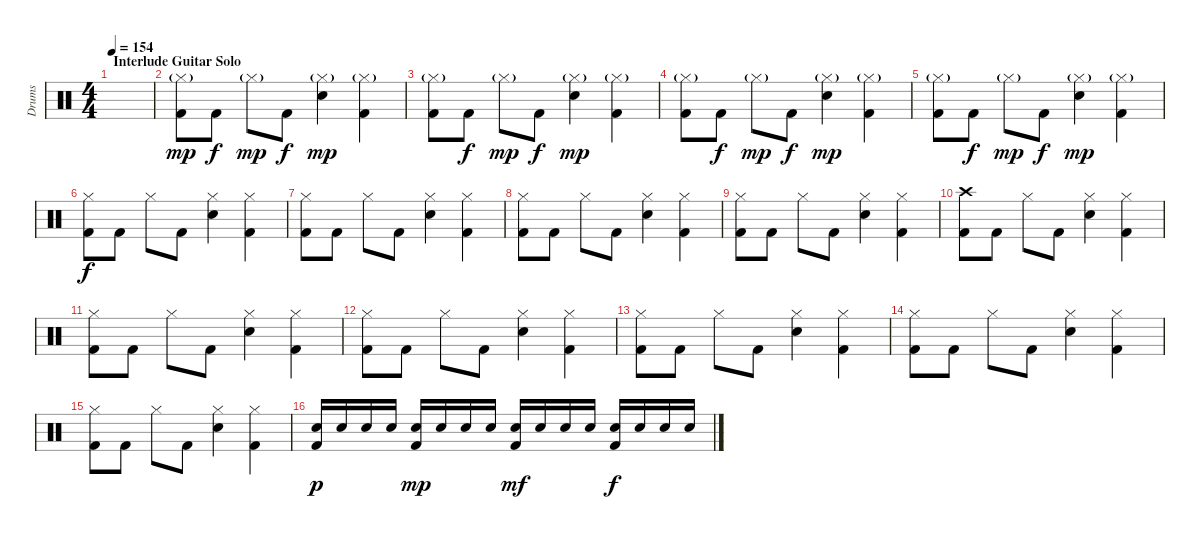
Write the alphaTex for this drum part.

\track ("Drums" "Drums") {instrument percussion}
\staff {score}
\articulation defaults
\ts (4 4)
\section ("" "Interlude Guitar Solo")
\tempo 154
\clef neutral
\ks c
|
("Hi-Hat (closed)"{g} "Kick (hit) 2").8{dy mp volume 9 balance 0} "Kick (hit) 2".8{dy f} "Hi-Hat (closed)"{g}.8{dy mp} "Kick (hit) 2".8{dy f} ("Hi-Hat (closed)"{g} "Electric Snare (hit)").4{dy mp} ("Hi-Hat (closed)"{g} "Kick (hit) 2").4 |
("Hi-Hat (closed)"{g} "Kick (hit) 2").8{volume 10 balance 0} "Kick (hit) 2".8{dy f} "Hi-Hat (closed)"{g}.8{dy mp} "Kick (hit) 2".8{dy f} ("Hi-Hat (closed)"{g} "Electric Snare (hit)").4{dy mp} ("Hi-Hat (closed)"{g} "Kick (hit) 2").4 |
("Hi-Hat (closed)"{g} "Kick (hit) 2").8{volume 11 balance 0} "Kick (hit) 2".8{dy f} "Hi-Hat (closed)"{g}.8{dy mp} "Kick (hit) 2".8{dy f} ("Hi-Hat (closed)"{g} "Electric Snare (hit)").4{dy mp} ("Hi-Hat (closed)"{g} "Kick (hit) 2").4 |
("Hi-Hat (closed)"{g} "Kick (hit) 2").8{volume 12 balance 0} "Kick (hit) 2".8{dy f} "Hi-Hat (closed)"{g}.8{dy mp} "Kick (hit) 2".8{dy f} ("Hi-Hat (closed)"{g} "Electric Snare (hit)").4{dy mp} ("Hi-Hat (closed)"{g} "Kick (hit) 2").4 |
("Hi-Hat (closed)" "Kick (hit) 2").8{dy f volume 13 balance 0} "Kick (hit) 2".8 "Hi-Hat (closed)".8 "Kick (hit) 2".8 ("Hi-Hat (closed)" "Electric Snare (hit)").4 ("Hi-Hat (closed)" "Kick (hit) 2").4 |
("Hi-Hat (closed)" "Kick (hit) 2").8{volume 14 balance 0} "Kick (hit) 2".8 "Hi-Hat (closed)".8 "Kick (hit) 2".8 ("Hi-Hat (closed)" "Electric Snare (hit)").4 ("Hi-Hat (closed)" "Kick (hit) 2").4 |
("Hi-Hat (closed)" "Kick (hit) 2").8{volume 15 balance 0} "Kick (hit) 2".8 "Hi-Hat (closed)".8 "Kick (hit) 2".8 ("Hi-Hat (closed)" "Electric Snare (hit)").4 ("Hi-Hat (closed)" "Kick (hit) 2").4 |
("Hi-Hat (closed)" "Kick (hit) 2").8{volume 16 balance 0} "Kick (hit) 2".8 "Hi-Hat (closed)".8 "Kick (hit) 2".8 ("Hi-Hat (closed)" "Electric Snare (hit)").4 ("Hi-Hat (closed)" "Kick (hit) 2").4 |
("Crash high (hit)" "Kick (hit) 2").8{balance 8} "Kick (hit) 2".8 "Hi-Hat (closed)".8 "Kick (hit) 2".8 ("Hi-Hat (closed)" "Electric Snare (hit)").4 ("Hi-Hat (closed)" "Kick (hit) 2").4 |
("Hi-Hat (closed)" "Kick (hit) 2").8 "Kick (hit) 2".8 "Hi-Hat (closed)".8 "Kick (hit) 2".8 ("Hi-Hat (closed)" "Electric Snare (hit)").4 ("Hi-Hat (closed)" "Kick (hit) 2").4 |
("Hi-Hat (closed)" "Kick (hit) 2").8 "Kick (hit) 2".8 "Hi-Hat (closed)".8 "Kick (hit) 2".8 ("Hi-Hat (closed)" "Electric Snare (hit)").4 ("Hi-Hat (closed)" "Kick (hit) 2").4 |
("Hi-Hat (closed)" "Kick (hit) 2").8 "Kick (hit) 2".8 "Hi-Hat (closed)".8 "Kick (hit) 2".8 ("Hi-Hat (closed)" "Electric Snare (hit)").4 ("Hi-Hat (closed)" "Kick (hit) 2").4 |
("Hi-Hat (closed)" "Kick (hit) 2").8 "Kick (hit) 2".8 "Hi-Hat (closed)".8 "Kick (hit) 2".8 ("Hi-Hat (closed)" "Electric Snare (hit)").4 ("Hi-Hat (closed)" "Kick (hit) 2").4 |
("Hi-Hat (closed)" "Kick (hit) 2").8 "Kick (hit) 2".8 "Hi-Hat (closed)".8 "Kick (hit) 2".8 ("Hi-Hat (closed)" "Electric Snare (hit)").4 ("Hi-Hat (closed)" "Kick (hit) 2").4 |
("Electric Snare (hit)" "Kick (hit) 2").16{dy p} "Electric Snare (hit)".16 "Electric Snare (hit)".16 "Electric Snare (hit)".16 ("Electric Snare (hit)" "Kick (hit) 2").16{dy mp} "Electric Snare (hit)".16 "Electric Snare (hit)".16 "Electric Snare (hit)".16 ("Electric Snare (hit)" "Kick (hit) 2").16{dy mf} "Electric Snare (hit)".16 "Electric Snare (hit)".16 "Electric Snare (hit)".16 ("Electric Snare (hit)" "Kick (hit) 2").16{dy f} "Electric Snare (hit)".16 "Electric Snare (hit)".16 "Electric Snare (hit)".16
